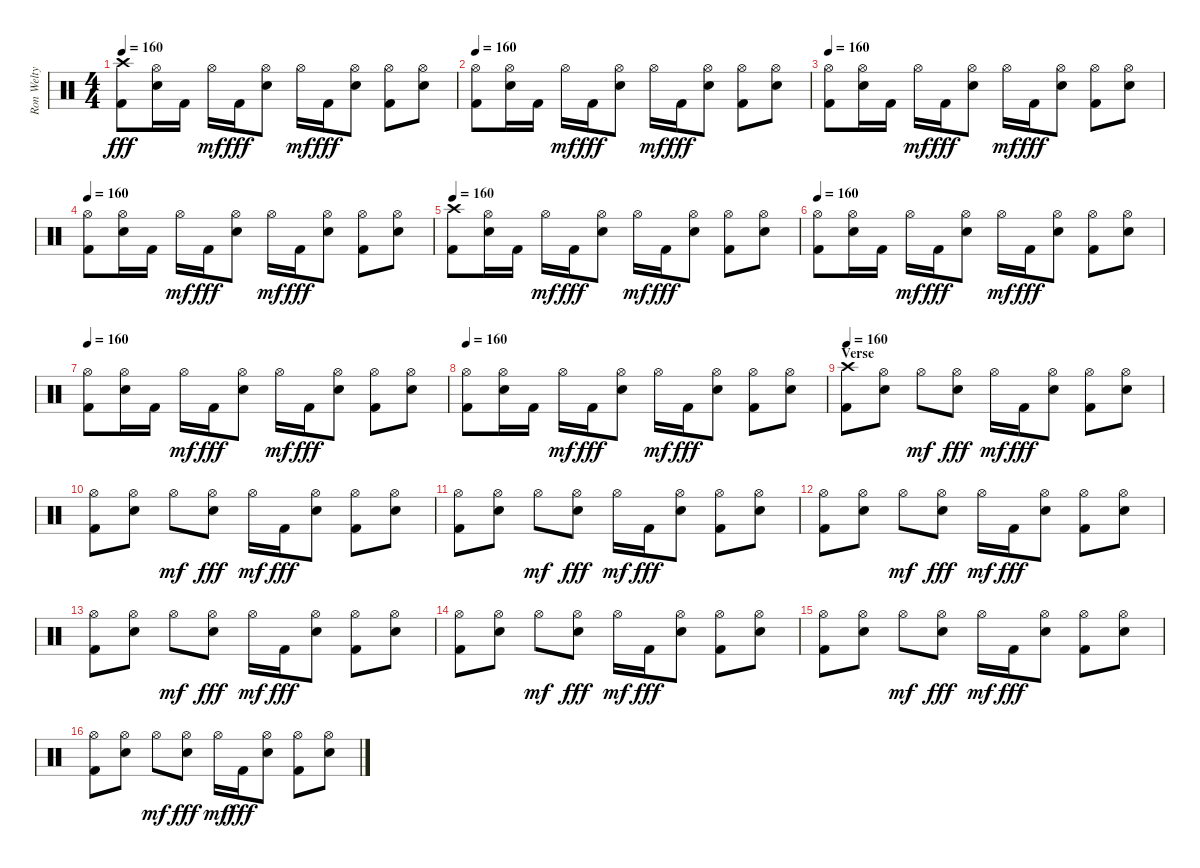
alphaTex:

\track ("Ron Welty" "Ron Welty") {instrument percussion}
\staff {score}
\articulation defaults
\ts (4 4)
\tempo 160
\clef neutral
\ks c
("Crash high (hit)" "Kick (hit) 2").8{dy fff} ("Hi-Hat (open)" "Snare (hit) 2").16 "Kick (hit) 2".16 "Hi-Hat (open)".16{dy mf} "Kick (hit) 2".16{dy fff} ("Hi-Hat (open)" "Snare (hit) 2").8 "Hi-Hat (open)".16{dy mf} "Kick (hit) 2".16{dy fff} ("Hi-Hat (open)" "Snare (hit) 2").8 ("Hi-Hat (open)" "Kick (hit) 2").8 ("Hi-Hat (open)" "Snare (hit) 2").8 |
\tempo 160
("Hi-Hat (open)" "Kick (hit) 2").8 ("Hi-Hat (open)" "Snare (hit) 2").16 "Kick (hit) 2".16 "Hi-Hat (open)".16{dy mf} "Kick (hit) 2".16{dy fff} ("Hi-Hat (open)" "Snare (hit) 2").8 "Hi-Hat (open)".16{dy mf} "Kick (hit) 2".16{dy fff} ("Hi-Hat (open)" "Snare (hit) 2").8 ("Hi-Hat (open)" "Kick (hit) 2").8 ("Hi-Hat (open)" "Snare (hit) 2").8 |
\tempo 160
("Hi-Hat (open)" "Kick (hit) 2").8 ("Hi-Hat (open)" "Snare (hit) 2").16 "Kick (hit) 2".16 "Hi-Hat (open)".16{dy mf} "Kick (hit) 2".16{dy fff} ("Hi-Hat (open)" "Snare (hit) 2").8 "Hi-Hat (open)".16{dy mf} "Kick (hit) 2".16{dy fff} ("Hi-Hat (open)" "Snare (hit) 2").8 ("Hi-Hat (open)" "Kick (hit) 2").8 ("Hi-Hat (open)" "Snare (hit) 2").8 |
\tempo 160
("Hi-Hat (open)" "Kick (hit) 2").8 ("Hi-Hat (open)" "Snare (hit) 2").16 "Kick (hit) 2".16 "Hi-Hat (open)".16{dy mf} "Kick (hit) 2".16{dy fff} ("Hi-Hat (open)" "Snare (hit) 2").8 "Hi-Hat (open)".16{dy mf} "Kick (hit) 2".16{dy fff} ("Hi-Hat (open)" "Snare (hit) 2").8 ("Hi-Hat (open)" "Kick (hit) 2").8 ("Hi-Hat (open)" "Snare (hit) 2").8 |
\tempo 160
("Crash high (hit)" "Kick (hit) 2").8 ("Hi-Hat (open)" "Snare (hit) 2").16 "Kick (hit) 2".16 "Hi-Hat (open)".16{dy mf} "Kick (hit) 2".16{dy fff} ("Hi-Hat (open)" "Snare (hit) 2").8 "Hi-Hat (open)".16{dy mf} "Kick (hit) 2".16{dy fff} ("Hi-Hat (open)" "Snare (hit) 2").8 ("Hi-Hat (open)" "Kick (hit) 2").8 ("Hi-Hat (open)" "Snare (hit) 2").8 |
\tempo 160
("Hi-Hat (open)" "Kick (hit) 2").8 ("Hi-Hat (open)" "Snare (hit) 2").16 "Kick (hit) 2".16 "Hi-Hat (open)".16{dy mf} "Kick (hit) 2".16{dy fff} ("Hi-Hat (open)" "Snare (hit) 2").8 "Hi-Hat (open)".16{dy mf} "Kick (hit) 2".16{dy fff} ("Hi-Hat (open)" "Snare (hit) 2").8 ("Hi-Hat (open)" "Kick (hit) 2").8 ("Hi-Hat (open)" "Snare (hit) 2").8 |
\tempo 160
("Hi-Hat (open)" "Kick (hit) 2").8 ("Hi-Hat (open)" "Snare (hit) 2").16 "Kick (hit) 2".16 "Hi-Hat (open)".16{dy mf} "Kick (hit) 2".16{dy fff} ("Hi-Hat (open)" "Snare (hit) 2").8 "Hi-Hat (open)".16{dy mf} "Kick (hit) 2".16{dy fff} ("Hi-Hat (open)" "Snare (hit) 2").8 ("Hi-Hat (open)" "Kick (hit) 2").8 ("Hi-Hat (open)" "Snare (hit) 2").8 |
\tempo 160
("Hi-Hat (open)" "Kick (hit) 2").8 ("Hi-Hat (open)" "Snare (hit) 2").16 "Kick (hit) 2".16 "Hi-Hat (open)".16{dy mf} "Kick (hit) 2".16{dy fff} ("Hi-Hat (open)" "Snare (hit) 2").8 "Hi-Hat (open)".16{dy mf} "Kick (hit) 2".16{dy fff} ("Hi-Hat (open)" "Snare (hit) 2").8 ("Hi-Hat (open)" "Kick (hit) 2").8 ("Hi-Hat (open)" "Snare (hit) 2").8 |
\section ("" "Verse")
\tempo 160
("Crash high (hit)" "Kick (hit) 2").8 ("Hi-Hat (open)" "Snare (hit) 2").8 "Hi-Hat (open)".8{dy mf} ("Hi-Hat (open)" "Snare (hit) 2").8{dy fff} "Hi-Hat (open)".16{dy mf} "Kick (hit) 2".16{dy fff} ("Hi-Hat (open)" "Snare (hit) 2").8 ("Hi-Hat (open)" "Kick (hit) 2").8 ("Hi-Hat (open)" "Snare (hit) 2").8 |
("Hi-Hat (open)" "Kick (hit) 2").8 ("Hi-Hat (open)" "Snare (hit) 2").8 "Hi-Hat (open)".8{dy mf} ("Hi-Hat (open)" "Snare (hit) 2").8{dy fff} "Hi-Hat (open)".16{dy mf} "Kick (hit) 2".16{dy fff} ("Hi-Hat (open)" "Snare (hit) 2").8 ("Hi-Hat (open)" "Kick (hit) 2").8 ("Hi-Hat (open)" "Snare (hit) 2").8 |
("Hi-Hat (open)" "Kick (hit) 2").8 ("Hi-Hat (open)" "Snare (hit) 2").8 "Hi-Hat (open)".8{dy mf} ("Hi-Hat (open)" "Snare (hit) 2").8{dy fff} "Hi-Hat (open)".16{dy mf} "Kick (hit) 2".16{dy fff} ("Hi-Hat (open)" "Snare (hit) 2").8 ("Hi-Hat (open)" "Kick (hit) 2").8 ("Hi-Hat (open)" "Snare (hit) 2").8 |
("Hi-Hat (open)" "Kick (hit) 2").8 ("Hi-Hat (open)" "Snare (hit) 2").8 "Hi-Hat (open)".8{dy mf} ("Hi-Hat (open)" "Snare (hit) 2").8{dy fff} "Hi-Hat (open)".16{dy mf} "Kick (hit) 2".16{dy fff} ("Hi-Hat (open)" "Snare (hit) 2").8 ("Hi-Hat (open)" "Kick (hit) 2").8 ("Hi-Hat (open)" "Snare (hit) 2").8 |
("Hi-Hat (open)" "Kick (hit) 2").8 ("Hi-Hat (open)" "Snare (hit) 2").8 "Hi-Hat (open)".8{dy mf} ("Hi-Hat (open)" "Snare (hit) 2").8{dy fff} "Hi-Hat (open)".16{dy mf} "Kick (hit) 2".16{dy fff} ("Hi-Hat (open)" "Snare (hit) 2").8 ("Hi-Hat (open)" "Kick (hit) 2").8 ("Hi-Hat (open)" "Snare (hit) 2").8 |
("Hi-Hat (open)" "Kick (hit) 2").8 ("Hi-Hat (open)" "Snare (hit) 2").8 "Hi-Hat (open)".8{dy mf} ("Hi-Hat (open)" "Snare (hit) 2").8{dy fff} "Hi-Hat (open)".16{dy mf} "Kick (hit) 2".16{dy fff} ("Hi-Hat (open)" "Snare (hit) 2").8 ("Hi-Hat (open)" "Kick (hit) 2").8 ("Hi-Hat (open)" "Snare (hit) 2").8 |
("Hi-Hat (open)" "Kick (hit) 2").8 ("Hi-Hat (open)" "Snare (hit) 2").8 "Hi-Hat (open)".8{dy mf} ("Hi-Hat (open)" "Snare (hit) 2").8{dy fff} "Hi-Hat (open)".16{dy mf} "Kick (hit) 2".16{dy fff} ("Hi-Hat (open)" "Snare (hit) 2").8 ("Hi-Hat (open)" "Kick (hit) 2").8 ("Hi-Hat (open)" "Snare (hit) 2").8 |
("Hi-Hat (open)" "Kick (hit) 2").8 ("Hi-Hat (open)" "Snare (hit) 2").8 "Hi-Hat (open)".8{dy mf} ("Hi-Hat (open)" "Snare (hit) 2").8{dy fff} "Hi-Hat (open)".16{dy mf} "Kick (hit) 2".16{dy fff} ("Hi-Hat (open)" "Snare (hit) 2").8 ("Hi-Hat (open)" "Kick (hit) 2").8 ("Hi-Hat (open)" "Snare (hit) 2").8
